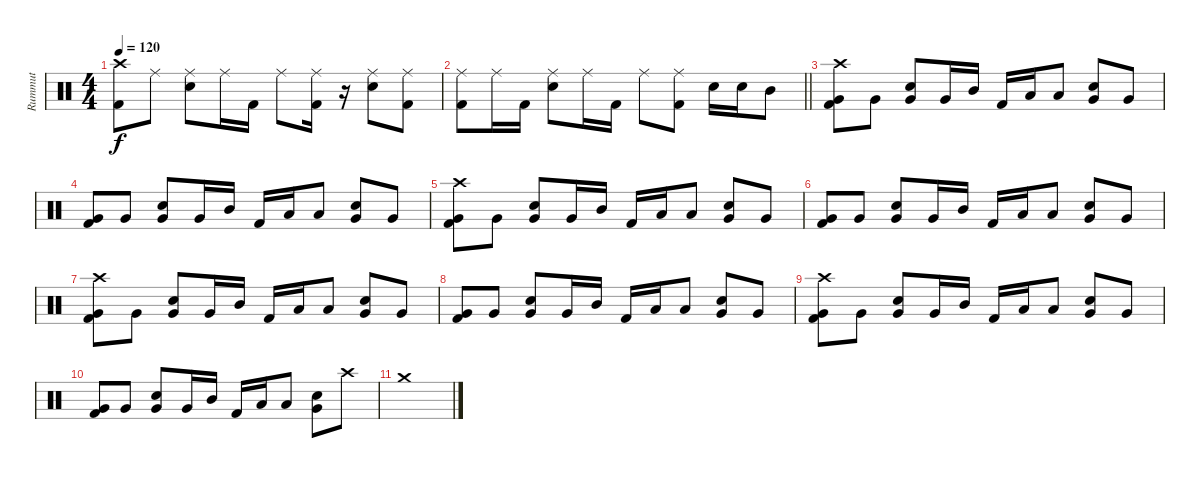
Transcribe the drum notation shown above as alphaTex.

\track ("Rummut" "Rummut") {instrument percussion}
\staff {score}
\articulation defaults
\ts (4 4)
\tempo 120
\clef neutral
\ks c
("Crash high (hit)" "Kick (hit) 2").8{dy f} "Ride (middle)".8 ("Ride (middle)" "Snare (hit) 2").8 "Ride (middle)".16 "Kick (hit) 2".16 "Ride (middle)".8 ("Ride (middle)" "Kick (hit) 2").16 r.16 ("Ride (middle)" "Snare (hit) 2").8 ("Ride (middle)" "Kick (hit) 2").8 |
\barLineRight lightlight
("Ride (middle)" "Kick (hit) 2").8 "Ride (middle)".16 "Kick (hit) 2".16 ("Ride (middle)" "Snare (hit) 2").8 "Ride (middle)".16 "Kick (hit) 2".16 "Ride (middle)".8 ("Ride (middle)" "Kick (hit) 2").8 "Snare (hit) 2".16 "Snare (hit) 2".16 "Mid Tom (hit)".8 |
("Crash high (hit)" "Very Low Tom (hit)" "Kick (hit) 2").8 "Very Low Tom (hit)".8 ("Very Low Tom (hit)" "Snare (hit) 2").8 "Very Low Tom (hit)".16 "Mid Tom (hit)".16 "Kick (hit) 2".16 "Low Tom (hit)".16 "Low Tom (hit)".8 ("Very Low Tom (hit)" "Snare (hit) 2").8 "Very Low Tom (hit)".8 |
("Very Low Tom (hit)" "Kick (hit) 2").8 "Very Low Tom (hit)".8 ("Very Low Tom (hit)" "Snare (hit) 2").8 "Very Low Tom (hit)".16 "Mid Tom (hit)".16 "Kick (hit) 2".16 "Low Tom (hit)".16 "Low Tom (hit)".8 ("Very Low Tom (hit)" "Snare (hit) 2").8 "Very Low Tom (hit)".8 |
("Crash high (hit)" "Very Low Tom (hit)" "Kick (hit) 2").8 "Very Low Tom (hit)".8 ("Very Low Tom (hit)" "Snare (hit) 2").8 "Very Low Tom (hit)".16 "Mid Tom (hit)".16 "Kick (hit) 2".16 "Low Tom (hit)".16 "Low Tom (hit)".8 ("Very Low Tom (hit)" "Snare (hit) 2").8 "Very Low Tom (hit)".8 |
("Very Low Tom (hit)" "Kick (hit) 2").8 "Very Low Tom (hit)".8 ("Very Low Tom (hit)" "Snare (hit) 2").8 "Very Low Tom (hit)".16 "Mid Tom (hit)".16 "Kick (hit) 2".16 "Low Tom (hit)".16 "Low Tom (hit)".8 ("Very Low Tom (hit)" "Snare (hit) 2").8 "Very Low Tom (hit)".8 |
("Crash high (hit)" "Very Low Tom (hit)" "Kick (hit) 2").8 "Very Low Tom (hit)".8 ("Very Low Tom (hit)" "Snare (hit) 2").8 "Very Low Tom (hit)".16 "Mid Tom (hit)".16 "Kick (hit) 2".16 "Low Tom (hit)".16 "Low Tom (hit)".8 ("Very Low Tom (hit)" "Snare (hit) 2").8 "Very Low Tom (hit)".8 |
("Very Low Tom (hit)" "Kick (hit) 2").8 "Very Low Tom (hit)".8 ("Very Low Tom (hit)" "Snare (hit) 2").8 "Very Low Tom (hit)".16 "Mid Tom (hit)".16 "Kick (hit) 2".16 "Low Tom (hit)".16 "Low Tom (hit)".8 ("Very Low Tom (hit)" "Snare (hit) 2").8 "Very Low Tom (hit)".8 |
("Crash high (hit)" "Very Low Tom (hit)" "Kick (hit) 2").8 "Very Low Tom (hit)".8 ("Very Low Tom (hit)" "Snare (hit) 2").8 "Very Low Tom (hit)".16 "Mid Tom (hit)".16 "Kick (hit) 2".16 "Low Tom (hit)".16 "Low Tom (hit)".8 ("Very Low Tom (hit)" "Snare (hit) 2").8 "Very Low Tom (hit)".8 |
("Very Low Tom (hit)" "Kick (hit) 2").8 "Very Low Tom (hit)".8 ("Very Low Tom (hit)" "Snare (hit) 2").8 "Very Low Tom (hit)".16 "Mid Tom (hit)".16 "Kick (hit) 2".16 "Low Tom (hit)".16 "Low Tom (hit)".8 ("Very Low Tom (hit)" "Snare (hit) 2").8 "Crash high (hit)".8 |
"Crash medium (hit)".1
